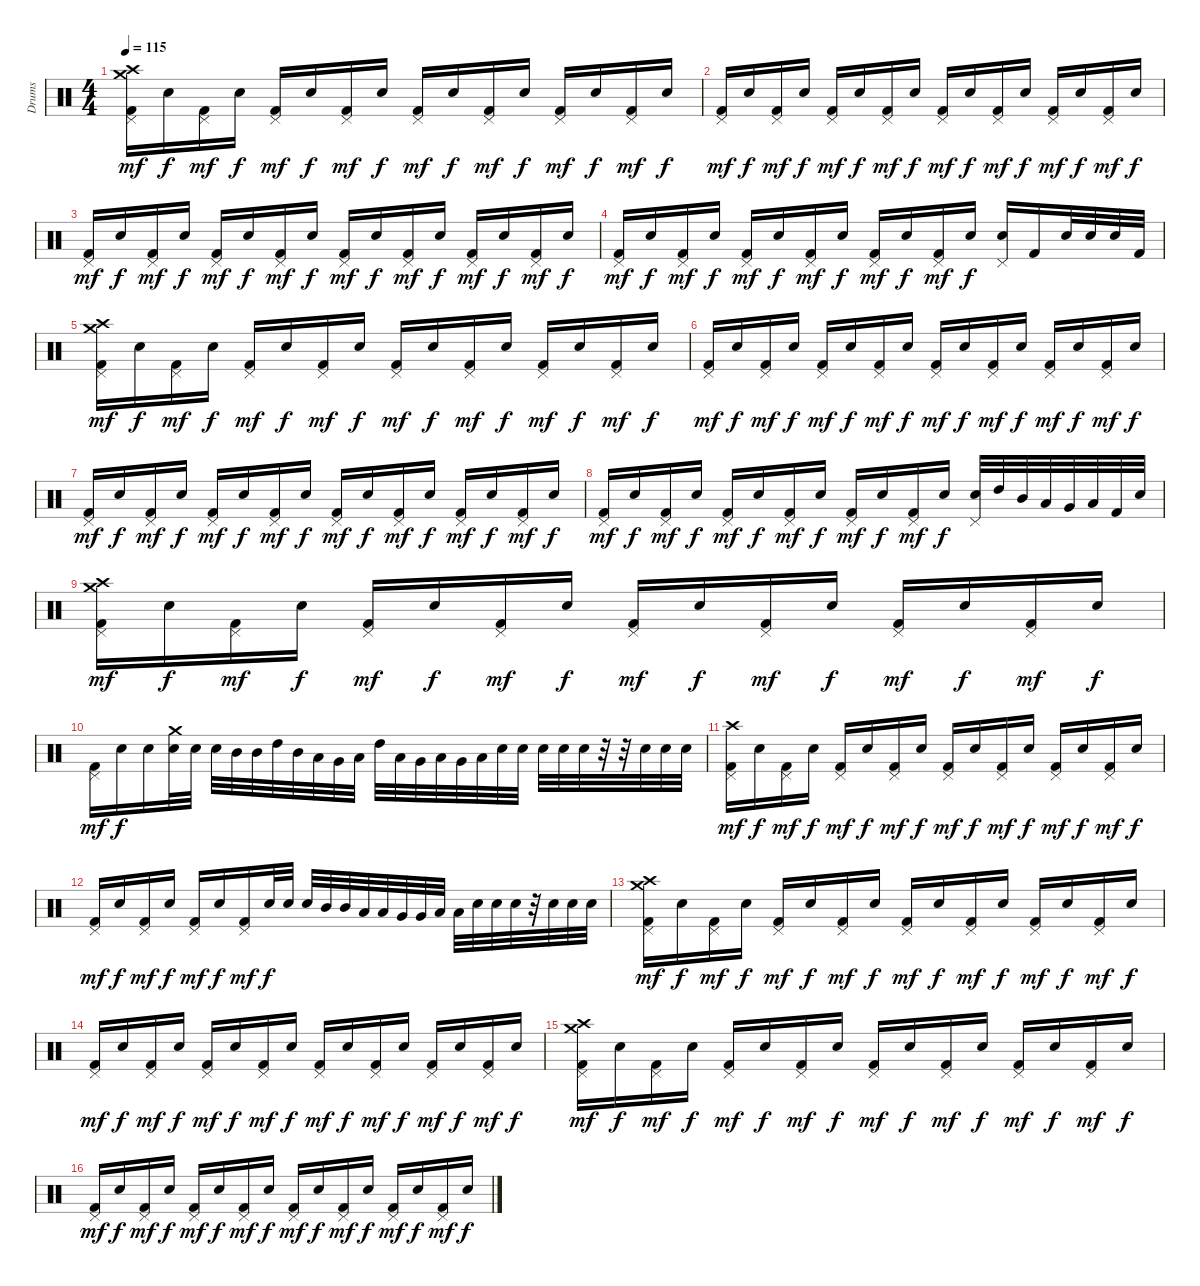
\track ("Drums" "Drums") {instrument percussion}
\staff {score}
\articulation defaults
\ts (4 4)
\tempo 115
\clef neutral
\ks c
("Crash high (hit)" "Crash medium (hit)" "Pedal Hi-Hat (hit)" "Kick (hit) 2").16{dy mf} "Snare (hit) 2".16{dy f} ("Pedal Hi-Hat (hit)" "Kick (hit) 2").16{dy mf} "Snare (hit) 2".16{dy f} ("Pedal Hi-Hat (hit)" "Kick (hit) 2").16{dy mf} "Snare (hit) 2".16{dy f} ("Pedal Hi-Hat (hit)" "Kick (hit) 2").16{dy mf} "Snare (hit) 2".16{dy f} ("Pedal Hi-Hat (hit)" "Kick (hit) 2").16{dy mf} "Snare (hit) 2".16{dy f} ("Pedal Hi-Hat (hit)" "Kick (hit) 2").16{dy mf} "Snare (hit) 2".16{dy f} ("Pedal Hi-Hat (hit)" "Kick (hit) 2").16{dy mf} "Snare (hit) 2".16{dy f} ("Pedal Hi-Hat (hit)" "Kick (hit) 2").16{dy mf} "Snare (hit) 2".16{dy f} |
("Pedal Hi-Hat (hit)" "Kick (hit) 2").16{dy mf} "Snare (hit) 2".16{dy f} ("Pedal Hi-Hat (hit)" "Kick (hit) 2").16{dy mf} "Snare (hit) 2".16{dy f} ("Pedal Hi-Hat (hit)" "Kick (hit) 2").16{dy mf} "Snare (hit) 2".16{dy f} ("Pedal Hi-Hat (hit)" "Kick (hit) 2").16{dy mf} "Snare (hit) 2".16{dy f} ("Pedal Hi-Hat (hit)" "Kick (hit) 2").16{dy mf} "Snare (hit) 2".16{dy f} ("Pedal Hi-Hat (hit)" "Kick (hit) 2").16{dy mf} "Snare (hit) 2".16{dy f} ("Pedal Hi-Hat (hit)" "Kick (hit) 2").16{dy mf} "Snare (hit) 2".16{dy f} ("Pedal Hi-Hat (hit)" "Kick (hit) 2").16{dy mf} "Snare (hit) 2".16{dy f} |
("Pedal Hi-Hat (hit)" "Kick (hit) 2").16{dy mf} "Snare (hit) 2".16{dy f} ("Pedal Hi-Hat (hit)" "Kick (hit) 2").16{dy mf} "Snare (hit) 2".16{dy f} ("Pedal Hi-Hat (hit)" "Kick (hit) 2").16{dy mf} "Snare (hit) 2".16{dy f} ("Pedal Hi-Hat (hit)" "Kick (hit) 2").16{dy mf} "Snare (hit) 2".16{dy f} ("Pedal Hi-Hat (hit)" "Kick (hit) 2").16{dy mf} "Snare (hit) 2".16{dy f} ("Pedal Hi-Hat (hit)" "Kick (hit) 2").16{dy mf} "Snare (hit) 2".16{dy f} ("Pedal Hi-Hat (hit)" "Kick (hit) 2").16{dy mf} "Snare (hit) 2".16{dy f} ("Pedal Hi-Hat (hit)" "Kick (hit) 2").16{dy mf} "Snare (hit) 2".16{dy f} |
("Pedal Hi-Hat (hit)" "Kick (hit) 2").16{dy mf} "Snare (hit) 2".16{dy f} ("Pedal Hi-Hat (hit)" "Kick (hit) 2").16{dy mf} "Snare (hit) 2".16{dy f} ("Pedal Hi-Hat (hit)" "Kick (hit) 2").16{dy mf} "Snare (hit) 2".16{dy f} ("Pedal Hi-Hat (hit)" "Kick (hit) 2").16{dy mf} "Snare (hit) 2".16{dy f} ("Pedal Hi-Hat (hit)" "Kick (hit) 2").16{dy mf} "Snare (hit) 2".16{dy f} ("Pedal Hi-Hat (hit)" "Kick (hit) 2").16{dy mf} "Snare (hit) 2".16{dy f} ("Pedal Hi-Hat (hit)" "Snare (hit) 2").16 "Kick (hit) 2".16 "Snare (hit) 2".32 "Snare (hit) 2".32 "Snare (hit) 2".32 "Kick (hit) 2".32 |
("Crash high (hit)" "Crash medium (hit)" "Pedal Hi-Hat (hit)" "Kick (hit) 2").16{dy mf} "Snare (hit) 2".16{dy f} ("Pedal Hi-Hat (hit)" "Kick (hit) 2").16{dy mf} "Snare (hit) 2".16{dy f} ("Pedal Hi-Hat (hit)" "Kick (hit) 2").16{dy mf} "Snare (hit) 2".16{dy f} ("Pedal Hi-Hat (hit)" "Kick (hit) 2").16{dy mf} "Snare (hit) 2".16{dy f} ("Pedal Hi-Hat (hit)" "Kick (hit) 2").16{dy mf} "Snare (hit) 2".16{dy f} ("Pedal Hi-Hat (hit)" "Kick (hit) 2").16{dy mf} "Snare (hit) 2".16{dy f} ("Pedal Hi-Hat (hit)" "Kick (hit) 2").16{dy mf} "Snare (hit) 2".16{dy f} ("Pedal Hi-Hat (hit)" "Kick (hit) 2").16{dy mf} "Snare (hit) 2".16{dy f} |
("Pedal Hi-Hat (hit)" "Kick (hit) 2").16{dy mf} "Snare (hit) 2".16{dy f} ("Pedal Hi-Hat (hit)" "Kick (hit) 2").16{dy mf} "Snare (hit) 2".16{dy f} ("Pedal Hi-Hat (hit)" "Kick (hit) 2").16{dy mf} "Snare (hit) 2".16{dy f} ("Pedal Hi-Hat (hit)" "Kick (hit) 2").16{dy mf} "Snare (hit) 2".16{dy f} ("Pedal Hi-Hat (hit)" "Kick (hit) 2").16{dy mf} "Snare (hit) 2".16{dy f} ("Pedal Hi-Hat (hit)" "Kick (hit) 2").16{dy mf} "Snare (hit) 2".16{dy f} ("Pedal Hi-Hat (hit)" "Kick (hit) 2").16{dy mf} "Snare (hit) 2".16{dy f} ("Pedal Hi-Hat (hit)" "Kick (hit) 2").16{dy mf} "Snare (hit) 2".16{dy f} |
("Pedal Hi-Hat (hit)" "Kick (hit) 2").16{dy mf} "Snare (hit) 2".16{dy f} ("Pedal Hi-Hat (hit)" "Kick (hit) 2").16{dy mf} "Snare (hit) 2".16{dy f} ("Pedal Hi-Hat (hit)" "Kick (hit) 2").16{dy mf} "Snare (hit) 2".16{dy f} ("Pedal Hi-Hat (hit)" "Kick (hit) 2").16{dy mf} "Snare (hit) 2".16{dy f} ("Pedal Hi-Hat (hit)" "Kick (hit) 2").16{dy mf} "Snare (hit) 2".16{dy f} ("Pedal Hi-Hat (hit)" "Kick (hit) 2").16{dy mf} "Snare (hit) 2".16{dy f} ("Pedal Hi-Hat (hit)" "Kick (hit) 2").16{dy mf} "Snare (hit) 2".16{dy f} ("Pedal Hi-Hat (hit)" "Kick (hit) 2").16{dy mf} "Snare (hit) 2".16{dy f} |
("Pedal Hi-Hat (hit)" "Kick (hit) 2").16{dy mf} "Snare (hit) 2".16{dy f} ("Pedal Hi-Hat (hit)" "Kick (hit) 2").16{dy mf} "Snare (hit) 2".16{dy f} ("Pedal Hi-Hat (hit)" "Kick (hit) 2").16{dy mf} "Snare (hit) 2".16{dy f} ("Pedal Hi-Hat (hit)" "Kick (hit) 2").16{dy mf} "Snare (hit) 2".16{dy f} ("Pedal Hi-Hat (hit)" "Kick (hit) 2").16{dy mf} "Snare (hit) 2".16{dy f} ("Pedal Hi-Hat (hit)" "Kick (hit) 2").16{dy mf} "Snare (hit) 2".16{dy f} ("Pedal Hi-Hat (hit)" "Snare (hit) 2").32 "High Tom (hit)".32 "Mid Tom (hit)".32 "Low Tom (hit)".32 "Very Low Tom (hit)".32 "Low Floor Tom (hit)".32 "Kick (hit) 2".32 "Snare (hit) 2".32 |
("Crash high (hit)" "Crash medium (hit)" "Pedal Hi-Hat (hit)" "Kick (hit) 2").16{dy mf} "Snare (hit) 2".16{dy f} ("Pedal Hi-Hat (hit)" "Kick (hit) 2").16{dy mf} "Snare (hit) 2".16{dy f} ("Pedal Hi-Hat (hit)" "Kick (hit) 2").16{dy mf} "Snare (hit) 2".16{dy f} ("Pedal Hi-Hat (hit)" "Kick (hit) 2").16{dy mf} "Snare (hit) 2".16{dy f} ("Pedal Hi-Hat (hit)" "Kick (hit) 2").16{dy mf} "Snare (hit) 2".16{dy f} ("Pedal Hi-Hat (hit)" "Kick (hit) 2").16{dy mf} "Snare (hit) 2".16{dy f} ("Pedal Hi-Hat (hit)" "Kick (hit) 2").16{dy mf} "Snare (hit) 2".16{dy f} ("Pedal Hi-Hat (hit)" "Kick (hit) 2").16{dy mf} "Snare (hit) 2".16{dy f} |
("Pedal Hi-Hat (hit)" "Kick (hit) 2").16{dy mf} "Snare (hit) 2".16{dy f} "Snare (hit) 2".16 ("Crash medium (hit)" "Snare (hit) 2").32 "Snare (hit) 2".32 "Snare (hit) 2".32 "Mid Tom (hit)".32 "Mid Tom (hit)".32 "High Tom (hit)".32 "Mid Tom (hit)".32 "Low Tom (hit)".32 "Very Low Tom (hit)".32 "Low Floor Tom (hit)".32 "High Tom (hit)".32 "Low Tom (hit)".32 "Very Low Tom (hit)".32 "Low Floor Tom (hit)".32 "Very Low Tom (hit)".32 "Low Floor Tom (hit)".32 "Snare (hit) 2".32 "Snare (hit) 2".32 "Snare (hit) 2".32 "Snare (hit) 2".32 "Snare (hit) 2".32 r.32 r.32 "Snare (hit) 2".32 "Snare (hit) 2".32 "Snare (hit) 2".32 |
("Crash high (hit)" "Pedal Hi-Hat (hit)" "Kick (hit) 2").16{dy mf} "Snare (hit) 2".16{dy f} ("Pedal Hi-Hat (hit)" "Kick (hit) 2").16{dy mf} "Snare (hit) 2".16{dy f} ("Pedal Hi-Hat (hit)" "Kick (hit) 2").16{dy mf} "Snare (hit) 2".16{dy f} ("Pedal Hi-Hat (hit)" "Kick (hit) 2").16{dy mf} "Snare (hit) 2".16{dy f} ("Pedal Hi-Hat (hit)" "Kick (hit) 2").16{dy mf} "Snare (hit) 2".16{dy f} ("Pedal Hi-Hat (hit)" "Kick (hit) 2").16{dy mf} "Snare (hit) 2".16{dy f} ("Pedal Hi-Hat (hit)" "Kick (hit) 2").16{dy mf} "Snare (hit) 2".16{dy f} ("Pedal Hi-Hat (hit)" "Kick (hit) 2").16{dy mf} "Snare (hit) 2".16{dy f} |
("Pedal Hi-Hat (hit)" "Kick (hit) 2").16{dy mf} "Snare (hit) 2".16{dy f} ("Pedal Hi-Hat (hit)" "Kick (hit) 2").16{dy mf} "Snare (hit) 2".16{dy f} ("Pedal Hi-Hat (hit)" "Kick (hit) 2").16{dy mf} "Snare (hit) 2".16{dy f} ("Pedal Hi-Hat (hit)" "Kick (hit) 2").16{dy mf} "Snare (hit) 2".32{dy f} "Snare (hit) 2".32 "Snare (hit) 2".32 "Mid Tom (hit)".32 "Mid Tom (hit)".32 "Low Tom (hit)".32 "Low Tom (hit)".32 "Very Low Tom (hit)".32 "Very Low Tom (hit)".32 "Low Floor Tom (hit)".32 "Low Floor Tom (hit)".32 "Snare (hit) 2".32 "Snare (hit) 2".32 "Snare (hit) 2".32 r.32 "Snare (hit) 2".32 "Snare (hit) 2".32 "Snare (hit) 2".32 |
("Crash high (hit)" "Crash medium (hit)" "Pedal Hi-Hat (hit)" "Kick (hit) 2").16{dy mf} "Snare (hit) 2".16{dy f} ("Pedal Hi-Hat (hit)" "Kick (hit) 2").16{dy mf} "Snare (hit) 2".16{dy f} ("Pedal Hi-Hat (hit)" "Kick (hit) 2").16{dy mf} "Snare (hit) 2".16{dy f} ("Pedal Hi-Hat (hit)" "Kick (hit) 2").16{dy mf} "Snare (hit) 2".16{dy f} ("Pedal Hi-Hat (hit)" "Kick (hit) 2").16{dy mf} "Snare (hit) 2".16{dy f} ("Pedal Hi-Hat (hit)" "Kick (hit) 2").16{dy mf} "Snare (hit) 2".16{dy f} ("Pedal Hi-Hat (hit)" "Kick (hit) 2").16{dy mf} "Snare (hit) 2".16{dy f} ("Pedal Hi-Hat (hit)" "Kick (hit) 2").16{dy mf} "Snare (hit) 2".16{dy f} |
("Pedal Hi-Hat (hit)" "Kick (hit) 2").16{dy mf} "Snare (hit) 2".16{dy f} ("Pedal Hi-Hat (hit)" "Kick (hit) 2").16{dy mf} "Snare (hit) 2".16{dy f} ("Pedal Hi-Hat (hit)" "Kick (hit) 2").16{dy mf} "Snare (hit) 2".16{dy f} ("Pedal Hi-Hat (hit)" "Kick (hit) 2").16{dy mf} "Snare (hit) 2".16{dy f} ("Pedal Hi-Hat (hit)" "Kick (hit) 2").16{dy mf} "Snare (hit) 2".16{dy f} ("Pedal Hi-Hat (hit)" "Kick (hit) 2").16{dy mf} "Snare (hit) 2".16{dy f} ("Pedal Hi-Hat (hit)" "Kick (hit) 2").16{dy mf} "Snare (hit) 2".16{dy f} ("Pedal Hi-Hat (hit)" "Kick (hit) 2").16{dy mf} "Snare (hit) 2".16{dy f} |
("Crash high (hit)" "Crash medium (hit)" "Pedal Hi-Hat (hit)" "Kick (hit) 2").16{dy mf} "Snare (hit) 2".16{dy f} ("Pedal Hi-Hat (hit)" "Kick (hit) 2").16{dy mf} "Snare (hit) 2".16{dy f} ("Pedal Hi-Hat (hit)" "Kick (hit) 2").16{dy mf} "Snare (hit) 2".16{dy f} ("Pedal Hi-Hat (hit)" "Kick (hit) 2").16{dy mf} "Snare (hit) 2".16{dy f} ("Pedal Hi-Hat (hit)" "Kick (hit) 2").16{dy mf} "Snare (hit) 2".16{dy f} ("Pedal Hi-Hat (hit)" "Kick (hit) 2").16{dy mf} "Snare (hit) 2".16{dy f} ("Pedal Hi-Hat (hit)" "Kick (hit) 2").16{dy mf} "Snare (hit) 2".16{dy f} ("Pedal Hi-Hat (hit)" "Kick (hit) 2").16{dy mf} "Snare (hit) 2".16{dy f} |
("Pedal Hi-Hat (hit)" "Kick (hit) 2").16{dy mf} "Snare (hit) 2".16{dy f} ("Pedal Hi-Hat (hit)" "Kick (hit) 2").16{dy mf} "Snare (hit) 2".16{dy f} ("Pedal Hi-Hat (hit)" "Kick (hit) 2").16{dy mf} "Snare (hit) 2".16{dy f} ("Pedal Hi-Hat (hit)" "Kick (hit) 2").16{dy mf} "Snare (hit) 2".16{dy f} ("Pedal Hi-Hat (hit)" "Kick (hit) 2").16{dy mf} "Snare (hit) 2".16{dy f} ("Pedal Hi-Hat (hit)" "Kick (hit) 2").16{dy mf} "Snare (hit) 2".16{dy f} ("Pedal Hi-Hat (hit)" "Kick (hit) 2").16{dy mf} "Snare (hit) 2".16{dy f} ("Pedal Hi-Hat (hit)" "Kick (hit) 2").16{dy mf} "Snare (hit) 2".16{dy f}
